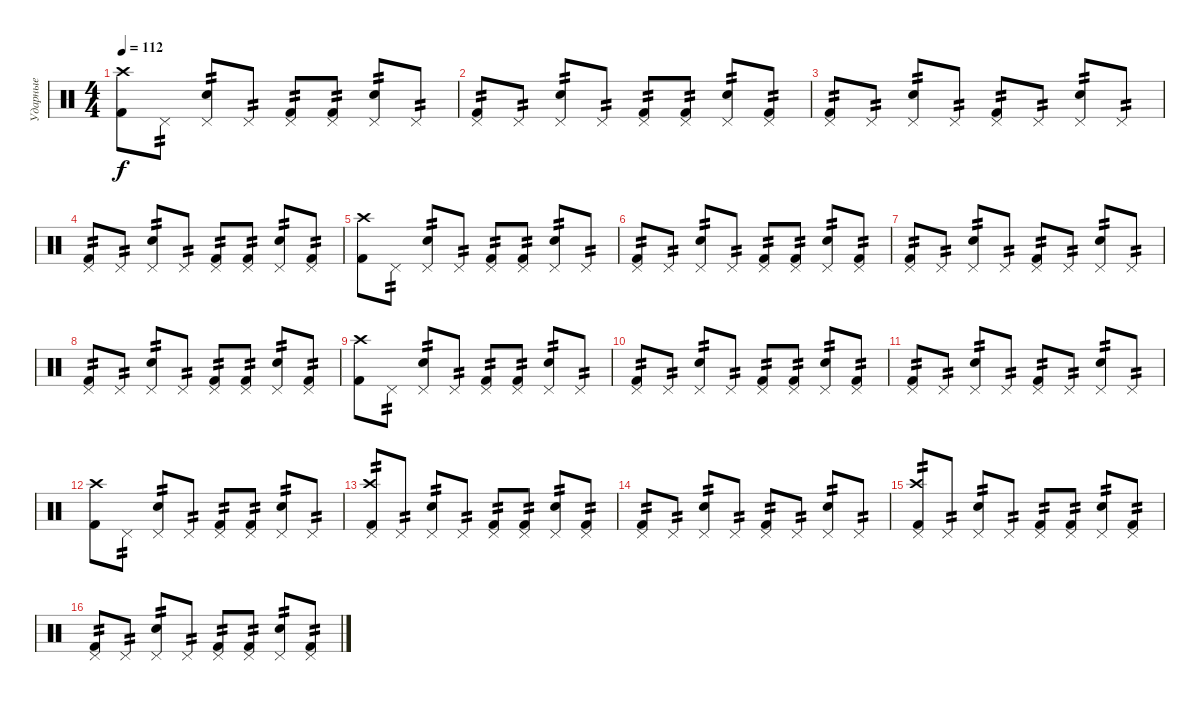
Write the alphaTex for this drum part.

\track ("Ударные" "Ударные") {instrument percussion}
\staff {score}
\articulation defaults
\ts (4 4)
\tempo 112
\clef neutral
\ks c
("Kick (hit) 2" "Crash high (hit)").8{dy f} "Pedal Hi-Hat (hit)".8{tp 2} ("Snare (hit) 2" "Pedal Hi-Hat (hit)").8{tp 2} "Pedal Hi-Hat (hit)".8{tp 2} ("Kick (hit) 2" "Pedal Hi-Hat (hit)").8{tp 2} ("Kick (hit) 2" "Pedal Hi-Hat (hit)").8{tp 2} ("Snare (hit) 2" "Pedal Hi-Hat (hit)").8{tp 2} "Pedal Hi-Hat (hit)".8{tp 2} |
("Kick (hit) 2" "Pedal Hi-Hat (hit)").8{tp 2} "Pedal Hi-Hat (hit)".8{tp 2} ("Snare (hit) 2" "Pedal Hi-Hat (hit)").8{tp 2} "Pedal Hi-Hat (hit)".8{tp 2} ("Kick (hit) 2" "Pedal Hi-Hat (hit)").8{tp 2} ("Kick (hit) 2" "Pedal Hi-Hat (hit)").8{tp 2} ("Snare (hit) 2" "Pedal Hi-Hat (hit)").8{tp 2} ("Kick (hit) 2" "Pedal Hi-Hat (hit)").8{tp 2} |
("Kick (hit) 2" "Pedal Hi-Hat (hit)").8{tp 2} "Pedal Hi-Hat (hit)".8{tp 2} ("Snare (hit) 2" "Pedal Hi-Hat (hit)").8{tp 2} "Pedal Hi-Hat (hit)".8{tp 2} ("Kick (hit) 2" "Pedal Hi-Hat (hit)").8{tp 2} "Pedal Hi-Hat (hit)".8{tp 2} ("Snare (hit) 2" "Pedal Hi-Hat (hit)").8{tp 2} "Pedal Hi-Hat (hit)".8{tp 2} |
("Kick (hit) 2" "Pedal Hi-Hat (hit)").8{tp 2} "Pedal Hi-Hat (hit)".8{tp 2} ("Snare (hit) 2" "Pedal Hi-Hat (hit)").8{tp 2} "Pedal Hi-Hat (hit)".8{tp 2} ("Kick (hit) 2" "Pedal Hi-Hat (hit)").8{tp 2} ("Kick (hit) 2" "Pedal Hi-Hat (hit)").8{tp 2} ("Snare (hit) 2" "Pedal Hi-Hat (hit)").8{tp 2} ("Kick (hit) 2" "Pedal Hi-Hat (hit)").8{tp 2} |
("Kick (hit) 2" "Crash high (hit)").8 "Pedal Hi-Hat (hit)".8{tp 2} ("Snare (hit) 2" "Pedal Hi-Hat (hit)").8{tp 2} "Pedal Hi-Hat (hit)".8{tp 2} ("Kick (hit) 2" "Pedal Hi-Hat (hit)").8{tp 2} ("Kick (hit) 2" "Pedal Hi-Hat (hit)").8{tp 2} ("Snare (hit) 2" "Pedal Hi-Hat (hit)").8{tp 2} "Pedal Hi-Hat (hit)".8{tp 2} |
("Kick (hit) 2" "Pedal Hi-Hat (hit)").8{tp 2} "Pedal Hi-Hat (hit)".8{tp 2} ("Snare (hit) 2" "Pedal Hi-Hat (hit)").8{tp 2} "Pedal Hi-Hat (hit)".8{tp 2} ("Kick (hit) 2" "Pedal Hi-Hat (hit)").8{tp 2} ("Kick (hit) 2" "Pedal Hi-Hat (hit)").8{tp 2} ("Snare (hit) 2" "Pedal Hi-Hat (hit)").8{tp 2} ("Kick (hit) 2" "Pedal Hi-Hat (hit)").8{tp 2} |
("Kick (hit) 2" "Pedal Hi-Hat (hit)").8{tp 2} "Pedal Hi-Hat (hit)".8{tp 2} ("Snare (hit) 2" "Pedal Hi-Hat (hit)").8{tp 2} "Pedal Hi-Hat (hit)".8{tp 2} ("Kick (hit) 2" "Pedal Hi-Hat (hit)").8{tp 2} "Pedal Hi-Hat (hit)".8{tp 2} ("Snare (hit) 2" "Pedal Hi-Hat (hit)").8{tp 2} "Pedal Hi-Hat (hit)".8{tp 2} |
("Kick (hit) 2" "Pedal Hi-Hat (hit)").8{tp 2} "Pedal Hi-Hat (hit)".8{tp 2} ("Snare (hit) 2" "Pedal Hi-Hat (hit)").8{tp 2} "Pedal Hi-Hat (hit)".8{tp 2} ("Kick (hit) 2" "Pedal Hi-Hat (hit)").8{tp 2} ("Kick (hit) 2" "Pedal Hi-Hat (hit)").8{tp 2} ("Snare (hit) 2" "Pedal Hi-Hat (hit)").8{tp 2} ("Kick (hit) 2" "Pedal Hi-Hat (hit)").8{tp 2} |
("Kick (hit) 2" "Crash high (hit)").8 "Pedal Hi-Hat (hit)".8{tp 2} ("Snare (hit) 2" "Pedal Hi-Hat (hit)").8{tp 2} "Pedal Hi-Hat (hit)".8{tp 2} ("Kick (hit) 2" "Pedal Hi-Hat (hit)").8{tp 2} ("Kick (hit) 2" "Pedal Hi-Hat (hit)").8{tp 2} ("Snare (hit) 2" "Pedal Hi-Hat (hit)").8{tp 2} "Pedal Hi-Hat (hit)".8{tp 2} |
("Kick (hit) 2" "Pedal Hi-Hat (hit)").8{tp 2} "Pedal Hi-Hat (hit)".8{tp 2} ("Snare (hit) 2" "Pedal Hi-Hat (hit)").8{tp 2} "Pedal Hi-Hat (hit)".8{tp 2} ("Kick (hit) 2" "Pedal Hi-Hat (hit)").8{tp 2} ("Kick (hit) 2" "Pedal Hi-Hat (hit)").8{tp 2} ("Snare (hit) 2" "Pedal Hi-Hat (hit)").8{tp 2} ("Kick (hit) 2" "Pedal Hi-Hat (hit)").8{tp 2} |
("Kick (hit) 2" "Pedal Hi-Hat (hit)").8{tp 2} "Pedal Hi-Hat (hit)".8{tp 2} ("Snare (hit) 2" "Pedal Hi-Hat (hit)").8{tp 2} "Pedal Hi-Hat (hit)".8{tp 2} ("Kick (hit) 2" "Pedal Hi-Hat (hit)").8{tp 2} "Pedal Hi-Hat (hit)".8{tp 2} ("Snare (hit) 2" "Pedal Hi-Hat (hit)").8{tp 2} "Pedal Hi-Hat (hit)".8{tp 2} |
("Kick (hit) 2" "Crash high (hit)").8 "Pedal Hi-Hat (hit)".8{tp 2} ("Snare (hit) 2" "Pedal Hi-Hat (hit)").8{tp 2} "Pedal Hi-Hat (hit)".8{tp 2} ("Kick (hit) 2" "Pedal Hi-Hat (hit)").8{tp 2} ("Kick (hit) 2" "Pedal Hi-Hat (hit)").8{tp 2} ("Snare (hit) 2" "Pedal Hi-Hat (hit)").8{tp 2} "Pedal Hi-Hat (hit)".8{tp 2} |
("Kick (hit) 2" "Pedal Hi-Hat (hit)" "Crash high (hit)").8{tp 2} "Pedal Hi-Hat (hit)".8{tp 2} ("Snare (hit) 2" "Pedal Hi-Hat (hit)").8{tp 2} "Pedal Hi-Hat (hit)".8{tp 2} ("Kick (hit) 2" "Pedal Hi-Hat (hit)").8{tp 2} ("Kick (hit) 2" "Pedal Hi-Hat (hit)").8{tp 2} ("Snare (hit) 2" "Pedal Hi-Hat (hit)").8{tp 2} ("Kick (hit) 2" "Pedal Hi-Hat (hit)").8{tp 2} |
("Kick (hit) 2" "Pedal Hi-Hat (hit)").8{tp 2} "Pedal Hi-Hat (hit)".8{tp 2} ("Snare (hit) 2" "Pedal Hi-Hat (hit)").8{tp 2} "Pedal Hi-Hat (hit)".8{tp 2} ("Kick (hit) 2" "Pedal Hi-Hat (hit)").8{tp 2} "Pedal Hi-Hat (hit)".8{tp 2} ("Snare (hit) 2" "Pedal Hi-Hat (hit)").8{tp 2} "Pedal Hi-Hat (hit)".8{tp 2} |
("Kick (hit) 2" "Pedal Hi-Hat (hit)" "Crash high (hit)").8{tp 2} "Pedal Hi-Hat (hit)".8{tp 2} ("Snare (hit) 2" "Pedal Hi-Hat (hit)").8{tp 2} "Pedal Hi-Hat (hit)".8{tp 2} ("Kick (hit) 2" "Pedal Hi-Hat (hit)").8{tp 2} ("Kick (hit) 2" "Pedal Hi-Hat (hit)").8{tp 2} ("Snare (hit) 2" "Pedal Hi-Hat (hit)").8{tp 2} ("Kick (hit) 2" "Pedal Hi-Hat (hit)").8{tp 2} |
("Kick (hit) 2" "Pedal Hi-Hat (hit)").8{tp 2} "Pedal Hi-Hat (hit)".8{tp 2} ("Snare (hit) 2" "Pedal Hi-Hat (hit)").8{tp 2} "Pedal Hi-Hat (hit)".8{tp 2} ("Kick (hit) 2" "Pedal Hi-Hat (hit)").8{tp 2} ("Kick (hit) 2" "Pedal Hi-Hat (hit)").8{tp 2} ("Snare (hit) 2" "Pedal Hi-Hat (hit)").8{tp 2} ("Kick (hit) 2" "Pedal Hi-Hat (hit)").8{tp 2}
